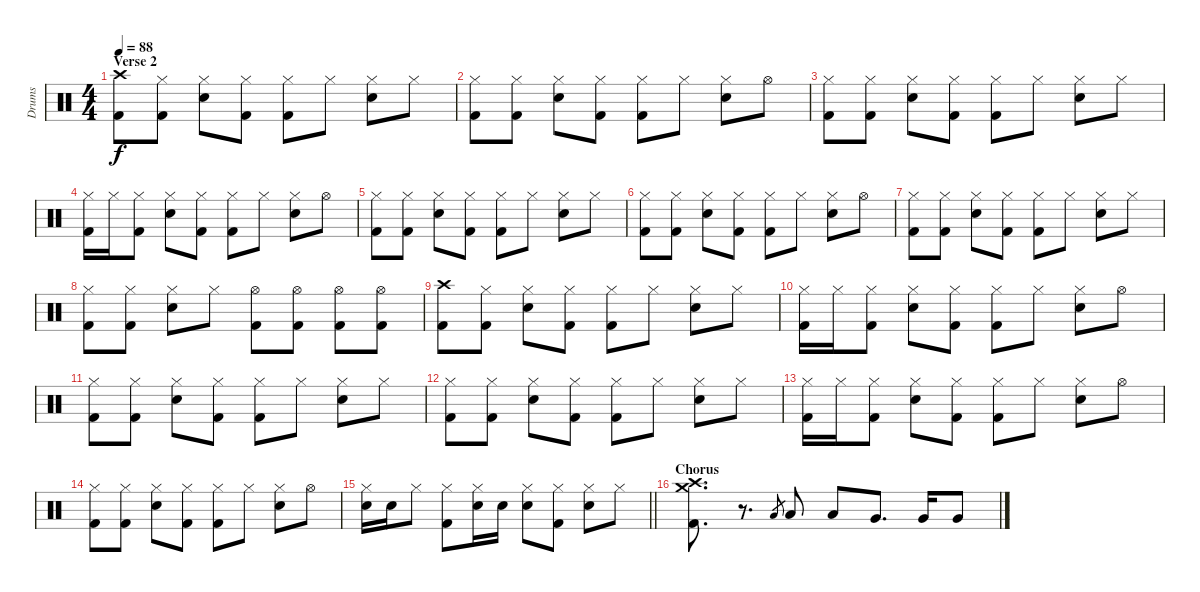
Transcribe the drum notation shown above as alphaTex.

\track ("Drums" "Drums") {instrument percussion}
\staff {score}
\articulation defaults
\ts (4 4)
\section ("" "Verse 2")
\tempo 88
\clef neutral
\ks c
("Crash high (hit)" "Kick (hit) 2").8{dy f} ("Hi-Hat (closed)" "Kick (hit) 2").8 ("Hi-Hat (closed)" "Snare (hit) 2").8 ("Hi-Hat (closed)" "Kick (hit) 2").8 ("Hi-Hat (closed)" "Kick (hit) 2").8 "Hi-Hat (closed)".8 ("Hi-Hat (closed)" "Snare (hit) 2").8 "Hi-Hat (closed)".8 |
("Hi-Hat (closed)" "Kick (hit) 2").8 ("Hi-Hat (closed)" "Kick (hit) 2").8 ("Hi-Hat (closed)" "Snare (hit) 2").8 ("Hi-Hat (closed)" "Kick (hit) 2").8 ("Hi-Hat (closed)" "Kick (hit) 2").8 "Hi-Hat (closed)".8 ("Hi-Hat (closed)" "Snare (hit) 2").8 "Hi-Hat (open)".8 |
("Hi-Hat (closed)" "Kick (hit) 2").8 ("Hi-Hat (closed)" "Kick (hit) 2").8 ("Hi-Hat (closed)" "Snare (hit) 2").8 ("Hi-Hat (closed)" "Kick (hit) 2").8 ("Hi-Hat (closed)" "Kick (hit) 2").8 "Hi-Hat (closed)".8 ("Hi-Hat (closed)" "Snare (hit) 2").8 "Hi-Hat (closed)".8 |
("Hi-Hat (closed)" "Kick (hit) 2").16 "Hi-Hat (closed)".16 ("Hi-Hat (closed)" "Kick (hit) 2").8 ("Hi-Hat (closed)" "Snare (hit) 2").8 ("Hi-Hat (closed)" "Kick (hit) 2").8 ("Hi-Hat (closed)" "Kick (hit) 2").8 "Hi-Hat (closed)".8 ("Hi-Hat (closed)" "Snare (hit) 2").8 "Hi-Hat (open)".8 |
("Hi-Hat (closed)" "Kick (hit) 2").8 ("Hi-Hat (closed)" "Kick (hit) 2").8 ("Hi-Hat (closed)" "Snare (hit) 2").8 ("Hi-Hat (closed)" "Kick (hit) 2").8 ("Hi-Hat (closed)" "Kick (hit) 2").8 "Hi-Hat (closed)".8 ("Hi-Hat (closed)" "Snare (hit) 2").8 "Hi-Hat (closed)".8 |
("Hi-Hat (closed)" "Kick (hit) 2").8 ("Hi-Hat (closed)" "Kick (hit) 2").8 ("Hi-Hat (closed)" "Snare (hit) 2").8 ("Hi-Hat (closed)" "Kick (hit) 2").8 ("Hi-Hat (closed)" "Kick (hit) 2").8 "Hi-Hat (closed)".8 ("Hi-Hat (closed)" "Snare (hit) 2").8 "Hi-Hat (open)".8 |
("Hi-Hat (closed)" "Kick (hit) 2").8 ("Hi-Hat (closed)" "Kick (hit) 2").8 ("Hi-Hat (closed)" "Snare (hit) 2").8 ("Hi-Hat (closed)" "Kick (hit) 2").8 ("Hi-Hat (closed)" "Kick (hit) 2").8 "Hi-Hat (closed)".8 ("Hi-Hat (closed)" "Snare (hit) 2").8 "Hi-Hat (closed)".8 |
("Hi-Hat (closed)" "Kick (hit) 2").8 ("Hi-Hat (closed)" "Kick (hit) 2").8 ("Hi-Hat (closed)" "Snare (hit) 2").8 "Hi-Hat (closed)".8 ("Hi-Hat (open)" "Kick (hit) 2").8 ("Hi-Hat (open)" "Kick (hit) 2").8 ("Hi-Hat (open)" "Kick (hit) 2").8 ("Hi-Hat (open)" "Kick (hit) 2").8 |
("Crash high (hit)" "Kick (hit) 2").8 ("Hi-Hat (closed)" "Kick (hit) 2").8 ("Hi-Hat (closed)" "Snare (hit) 2").8 ("Hi-Hat (closed)" "Kick (hit) 2").8 ("Hi-Hat (closed)" "Kick (hit) 2").8 "Hi-Hat (closed)".8 ("Hi-Hat (closed)" "Snare (hit) 2").8 "Hi-Hat (closed)".8 |
("Hi-Hat (closed)" "Kick (hit) 2").16 "Hi-Hat (closed)".16 ("Hi-Hat (closed)" "Kick (hit) 2").8 ("Hi-Hat (closed)" "Snare (hit) 2").8 ("Hi-Hat (closed)" "Kick (hit) 2").8 ("Hi-Hat (closed)" "Kick (hit) 2").8 "Hi-Hat (closed)".8 ("Hi-Hat (closed)" "Snare (hit) 2").8 "Hi-Hat (open)".8 |
("Hi-Hat (closed)" "Kick (hit) 2").8 ("Hi-Hat (closed)" "Kick (hit) 2").8 ("Hi-Hat (closed)" "Snare (hit) 2").8 ("Hi-Hat (closed)" "Kick (hit) 2").8 ("Hi-Hat (closed)" "Kick (hit) 2").8 "Hi-Hat (closed)".8 ("Hi-Hat (closed)" "Snare (hit) 2").8 "Hi-Hat (closed)".8 |
("Hi-Hat (closed)" "Kick (hit) 2").8 ("Hi-Hat (closed)" "Kick (hit) 2").8 ("Hi-Hat (closed)" "Snare (hit) 2").8 ("Hi-Hat (closed)" "Kick (hit) 2").8 ("Hi-Hat (closed)" "Kick (hit) 2").8 "Hi-Hat (closed)".8 ("Hi-Hat (closed)" "Snare (hit) 2").8 "Hi-Hat (closed)".8 |
("Hi-Hat (closed)" "Kick (hit) 2").16 "Hi-Hat (closed)".16 ("Hi-Hat (closed)" "Kick (hit) 2").8 ("Hi-Hat (closed)" "Snare (hit) 2").8 ("Hi-Hat (closed)" "Kick (hit) 2").8 ("Hi-Hat (closed)" "Kick (hit) 2").8 "Hi-Hat (closed)".8 ("Hi-Hat (closed)" "Snare (hit) 2").8 "Hi-Hat (open)".8 |
("Hi-Hat (closed)" "Kick (hit) 2").8 ("Hi-Hat (closed)" "Kick (hit) 2").8 ("Hi-Hat (closed)" "Snare (hit) 2").8 ("Hi-Hat (closed)" "Kick (hit) 2").8 ("Hi-Hat (closed)" "Kick (hit) 2").8 "Hi-Hat (closed)".8 ("Hi-Hat (closed)" "Snare (hit) 2").8 "Hi-Hat (open)".8 |
\barLineRight lightlight
("Hi-Hat (closed)" "Snare (hit) 2").16 "Snare (hit) 2".16 "Hi-Hat (closed)".8 ("Hi-Hat (closed)" "Kick (hit) 2").8 ("Hi-Hat (closed)" "Snare (hit) 2").16 "Snare (hit) 2".16 ("Hi-Hat (closed)" "Snare (hit) 2").8 ("Hi-Hat (closed)" "Kick (hit) 2").8 ("Hi-Hat (closed)" "Snare (hit) 2").8 "Hi-Hat (closed)".8 |
\section ("" "Chorus")
("Crash high (hit)" "Crash medium (hit)" "Kick (hit) 2").8{d} r.8{d} "Low Tom (hit)".8{gr} "Low Tom (hit)".8 "Low Tom (hit)".8 "Very Low Tom (hit)".8{d} "Very Low Tom (hit)".16 "Very Low Tom (hit)".8
